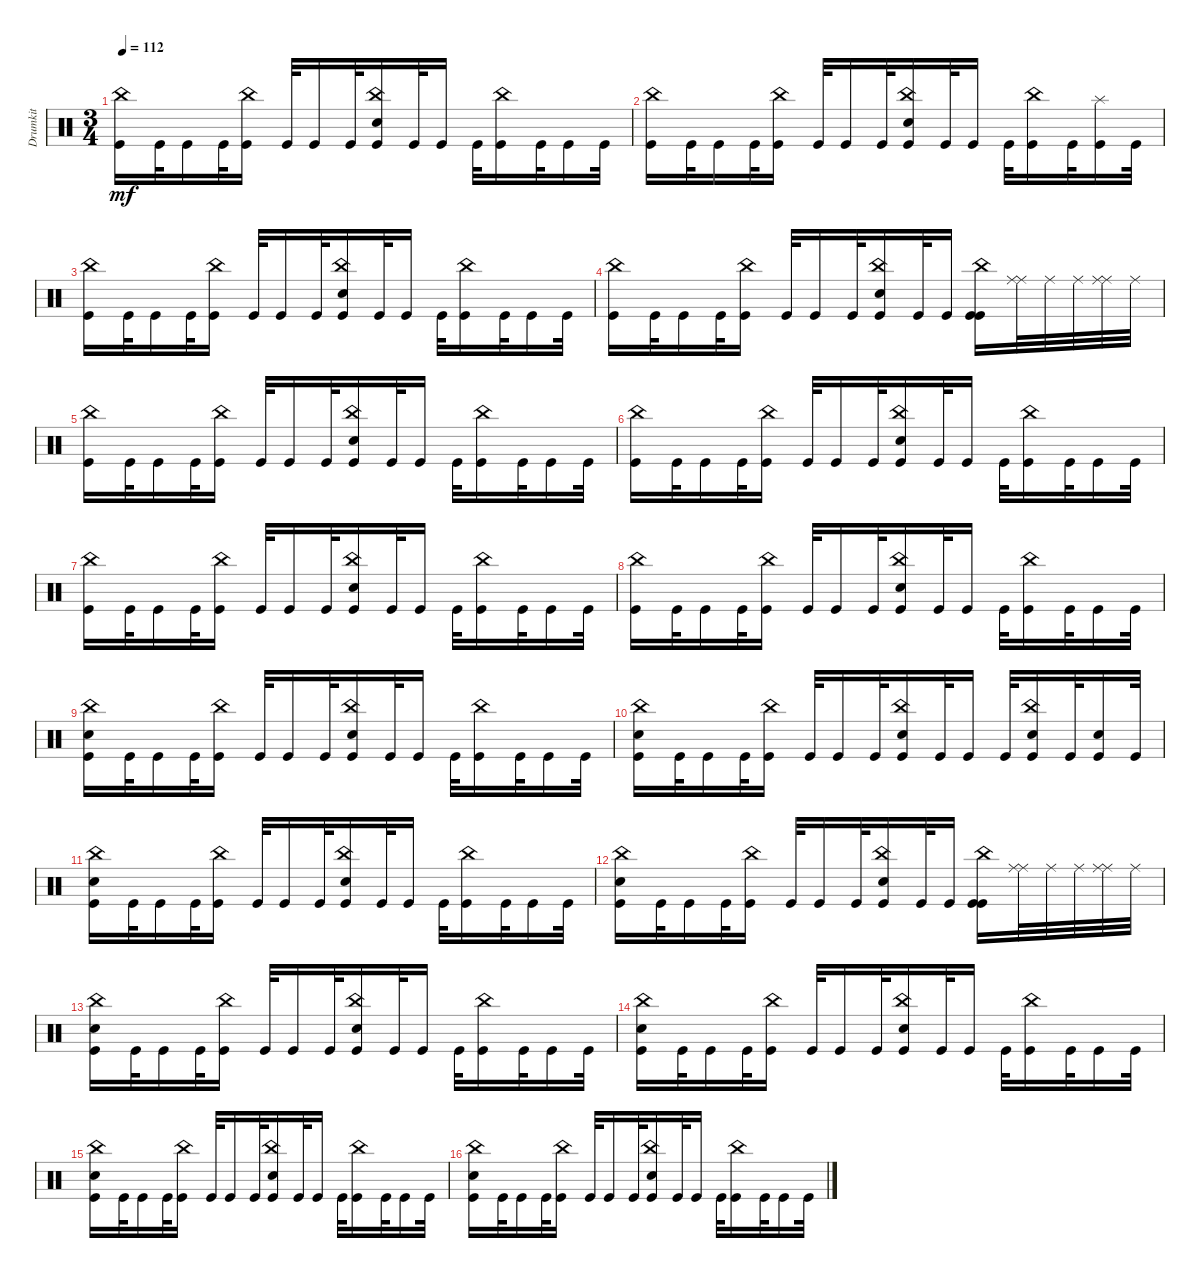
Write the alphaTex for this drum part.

\track ("Drumkit" "Drumkit") {instrument percussion}
\staff {score}
\articulation defaults
\ts (3 4)
\tempo 112
\clef neutral
\ks c
("Kick (hit)" "China (hit)").16{dy mf} "Kick (hit)".32 "Kick (hit)".16 "Kick (hit)".32 ("Kick (hit)" "China (hit)").16 "Kick (hit)".32 "Kick (hit)".16 "Kick (hit)".32 ("Kick (hit)" "Snare (hit) 2" "China (hit)").16 "Kick (hit)".32 "Kick (hit)".16 "Kick (hit)".32 ("Kick (hit)" "China (hit)").16 "Kick (hit)".32 "Kick (hit)".16 "Kick (hit)".32 |
("Kick (hit)" "China (hit)").16 "Kick (hit)".32 "Kick (hit)".16 "Kick (hit)".32 ("Kick (hit)" "China (hit)").16 "Kick (hit)".32 "Kick (hit)".16 "Kick (hit)".32 ("Kick (hit)" "Snare (hit) 2" "China (hit)").16 "Kick (hit)".32 "Kick (hit)".16 "Kick (hit)".32 ("Kick (hit)" "China (hit)").16 "Kick (hit)".32 ("Kick (hit)" "Splash (hit)").16 "Kick (hit)".32 |
("Kick (hit)" "China (hit)").16 "Kick (hit)".32 "Kick (hit)".16 "Kick (hit)".32 ("Kick (hit)" "China (hit)").16 "Kick (hit)".32 "Kick (hit)".16 "Kick (hit)".32 ("Kick (hit)" "Snare (hit) 2" "China (hit)").16 "Kick (hit)".32 "Kick (hit)".16 "Kick (hit)".32 ("Kick (hit)" "China (hit)").16 "Kick (hit)".32 "Kick (hit)".16 "Kick (hit)".32 |
("Kick (hit)" "China (hit)").16 "Kick (hit)".32 "Kick (hit)".16 "Kick (hit)".32 ("Kick (hit)" "China (hit)").16 "Kick (hit)".32 "Kick (hit)".16 "Kick (hit)".32 ("Kick (hit)" "Snare (hit) 2" "China (hit)").16 "Kick (hit)".32 "Kick (hit)".16 ("Kick (hit)" "Kick (hit)" "China (hit)").16 ("Ride (middle)" "Ride (middle)").32 "Ride (middle)".32 "Ride (middle)".32 ("Ride (middle)" "Ride (middle)").32 "Ride (middle)".32 |
("Kick (hit)" "China (hit)").16 "Kick (hit)".32 "Kick (hit)".16 "Kick (hit)".32 ("Kick (hit)" "China (hit)").16 "Kick (hit)".32 "Kick (hit)".16 "Kick (hit)".32 ("Kick (hit)" "Snare (hit) 2" "China (hit)").16 "Kick (hit)".32 "Kick (hit)".16 "Kick (hit)".32 ("Kick (hit)" "China (hit)").16 "Kick (hit)".32 "Kick (hit)".16 "Kick (hit)".32 |
("Kick (hit)" "China (hit)").16 "Kick (hit)".32 "Kick (hit)".16 "Kick (hit)".32 ("Kick (hit)" "China (hit)").16 "Kick (hit)".32 "Kick (hit)".16 "Kick (hit)".32 ("Kick (hit)" "Snare (hit) 2" "China (hit)").16 "Kick (hit)".32 "Kick (hit)".16 "Kick (hit)".32 ("Kick (hit)" "China (hit)").16 "Kick (hit)".32 "Kick (hit)".16 "Kick (hit)".32 |
("Kick (hit)" "China (hit)").16 "Kick (hit)".32 "Kick (hit)".16 "Kick (hit)".32 ("Kick (hit)" "China (hit)").16 "Kick (hit)".32 "Kick (hit)".16 "Kick (hit)".32 ("Kick (hit)" "Snare (hit) 2" "China (hit)").16 "Kick (hit)".32 "Kick (hit)".16 "Kick (hit)".32 ("Kick (hit)" "China (hit)").16 "Kick (hit)".32 "Kick (hit)".16 "Kick (hit)".32 |
("Kick (hit)" "China (hit)").16 "Kick (hit)".32 "Kick (hit)".16 "Kick (hit)".32 ("Kick (hit)" "China (hit)").16 "Kick (hit)".32 "Kick (hit)".16 "Kick (hit)".32 ("Kick (hit)" "Snare (hit) 2" "China (hit)").16 "Kick (hit)".32 "Kick (hit)".16 "Kick (hit)".32 ("Kick (hit)" "China (hit)").16 "Kick (hit)".32 "Kick (hit)".16 "Kick (hit)".32 |
("Kick (hit)" "China (hit)" "Snare (hit) 2").16 "Kick (hit)".32 "Kick (hit)".16 "Kick (hit)".32 ("Kick (hit)" "China (hit)").16 "Kick (hit)".32 "Kick (hit)".16 "Kick (hit)".32 ("Kick (hit)" "Snare (hit) 2" "China (hit)").16 "Kick (hit)".32 "Kick (hit)".16 "Kick (hit)".32 ("Kick (hit)" "China (hit)").16 "Kick (hit)".32 "Kick (hit)".16 "Kick (hit)".32 |
("Kick (hit)" "China (hit)" "Snare (hit) 2").16 "Kick (hit)".32 "Kick (hit)".16 "Kick (hit)".32 ("Kick (hit)" "China (hit)").16 "Kick (hit)".32 "Kick (hit)".16 "Kick (hit)".32 ("Kick (hit)" "Snare (hit) 2" "China (hit)").16 "Kick (hit)".32 "Kick (hit)".16 "Kick (hit)".32 ("Kick (hit)" "China (hit)" "Snare (hit) 2").16 "Kick (hit)".32 ("Kick (hit)" "Snare (hit) 2").16 "Kick (hit)".32 |
("Kick (hit)" "China (hit)" "Snare (hit) 2").16 "Kick (hit)".32 "Kick (hit)".16 "Kick (hit)".32 ("Kick (hit)" "China (hit)").16 "Kick (hit)".32 "Kick (hit)".16 "Kick (hit)".32 ("Kick (hit)" "Snare (hit) 2" "China (hit)").16 "Kick (hit)".32 "Kick (hit)".16 "Kick (hit)".32 ("Kick (hit)" "China (hit)").16 "Kick (hit)".32 "Kick (hit)".16 "Kick (hit)".32 |
("Kick (hit)" "China (hit)" "Snare (hit) 2").16 "Kick (hit)".32 "Kick (hit)".16 "Kick (hit)".32 ("Kick (hit)" "China (hit)").16 "Kick (hit)".32 "Kick (hit)".16 "Kick (hit)".32 ("Kick (hit)" "Snare (hit) 2" "China (hit)").16 "Kick (hit)".32 "Kick (hit)".16 ("Kick (hit)" "Kick (hit)" "China (hit)").16 ("Ride (middle)" "Ride (middle)").32 "Ride (middle)".32 "Ride (middle)".32 ("Ride (middle)" "Ride (middle)").32 "Ride (middle)".32 |
("Kick (hit)" "China (hit)" "Snare (hit) 2").16 "Kick (hit)".32 "Kick (hit)".16 "Kick (hit)".32 ("Kick (hit)" "China (hit)").16 "Kick (hit)".32 "Kick (hit)".16 "Kick (hit)".32 ("Kick (hit)" "Snare (hit) 2" "China (hit)").16 "Kick (hit)".32 "Kick (hit)".16 "Kick (hit)".32 ("Kick (hit)" "China (hit)").16 "Kick (hit)".32 "Kick (hit)".16 "Kick (hit)".32 |
("Kick (hit)" "China (hit)" "Snare (hit) 2").16 "Kick (hit)".32 "Kick (hit)".16 "Kick (hit)".32 ("Kick (hit)" "China (hit)").16 "Kick (hit)".32 "Kick (hit)".16 "Kick (hit)".32 ("Kick (hit)" "Snare (hit) 2" "China (hit)").16 "Kick (hit)".32 "Kick (hit)".16 "Kick (hit)".32 ("Kick (hit)" "China (hit)").16 "Kick (hit)".32 "Kick (hit)".16 "Kick (hit)".32 |
("Kick (hit)" "China (hit)" "Snare (hit) 2").16 "Kick (hit)".32 "Kick (hit)".16 "Kick (hit)".32 ("Kick (hit)" "China (hit)").16 "Kick (hit)".32 "Kick (hit)".16 "Kick (hit)".32 ("Kick (hit)" "Snare (hit) 2" "China (hit)").16 "Kick (hit)".32 "Kick (hit)".16 "Kick (hit)".32 ("Kick (hit)" "China (hit)").16 "Kick (hit)".32 "Kick (hit)".16 "Kick (hit)".32 |
("Kick (hit)" "China (hit)" "Snare (hit) 2").16 "Kick (hit)".32 "Kick (hit)".16 "Kick (hit)".32 ("Kick (hit)" "China (hit)").16 "Kick (hit)".32 "Kick (hit)".16 "Kick (hit)".32 ("Kick (hit)" "Snare (hit) 2" "China (hit)").16 "Kick (hit)".32 "Kick (hit)".16 "Kick (hit)".32 ("Kick (hit)" "China (hit)").16 "Kick (hit)".32 "Kick (hit)".16 "Kick (hit)".32
